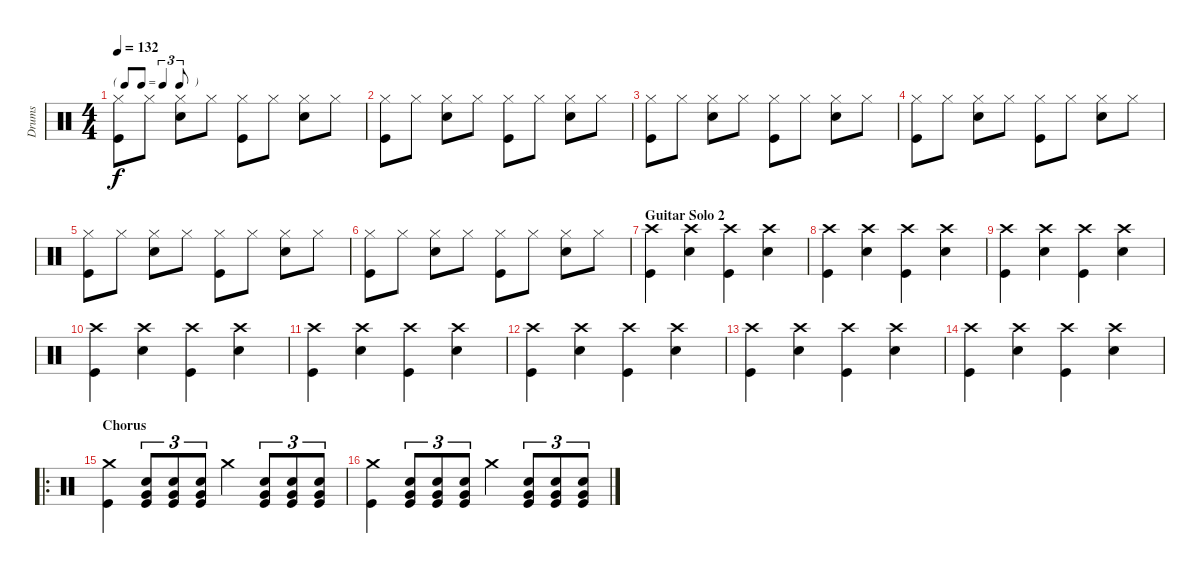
\track ("Drums" "Drums") {instrument percussion}
\staff {score}
\articulation defaults
\ts (4 4)
\tf triplet8th
\tempo 132
\clef neutral
\ks c
("Hi-Hat (closed)" "Kick (hit)").8{dy f} "Hi-Hat (closed)".8 ("Hi-Hat (closed)" "Snare (hit) 2").8 "Hi-Hat (closed)".8 ("Hi-Hat (closed)" "Kick (hit)").8 "Hi-Hat (closed)".8 ("Hi-Hat (closed)" "Snare (hit) 2").8 "Hi-Hat (closed)".8 |
("Hi-Hat (closed)" "Kick (hit)").8 "Hi-Hat (closed)".8 ("Hi-Hat (closed)" "Snare (hit) 2").8 "Hi-Hat (closed)".8 ("Hi-Hat (closed)" "Kick (hit)").8 "Hi-Hat (closed)".8 ("Hi-Hat (closed)" "Snare (hit) 2").8 "Hi-Hat (closed)".8 |
("Hi-Hat (closed)" "Kick (hit)").8 "Hi-Hat (closed)".8 ("Hi-Hat (closed)" "Snare (hit) 2").8 "Hi-Hat (closed)".8 ("Hi-Hat (closed)" "Kick (hit)").8 "Hi-Hat (closed)".8 ("Hi-Hat (closed)" "Snare (hit) 2").8 "Hi-Hat (closed)".8 |
("Hi-Hat (closed)" "Kick (hit)").8 "Hi-Hat (closed)".8 ("Hi-Hat (closed)" "Snare (hit) 2").8 "Hi-Hat (closed)".8 ("Hi-Hat (closed)" "Kick (hit)").8 "Hi-Hat (closed)".8 ("Hi-Hat (closed)" "Snare (hit) 2").8 "Hi-Hat (closed)".8 |
("Hi-Hat (closed)" "Kick (hit)").8 "Hi-Hat (closed)".8 ("Hi-Hat (closed)" "Snare (hit) 2").8 "Hi-Hat (closed)".8 ("Hi-Hat (closed)" "Kick (hit)").8 "Hi-Hat (closed)".8 ("Hi-Hat (closed)" "Snare (hit) 2").8 "Hi-Hat (closed)".8 |
("Hi-Hat (closed)" "Kick (hit)").8 "Hi-Hat (closed)".8 ("Hi-Hat (closed)" "Snare (hit) 2").8 "Hi-Hat (closed)".8 ("Hi-Hat (closed)" "Kick (hit)").8 "Hi-Hat (closed)".8 ("Hi-Hat (closed)" "Snare (hit) 2").8 "Hi-Hat (closed)".8 |
\section ("" "Guitar Solo 2")
("Crash high (hit)" "Kick (hit)").4 ("Crash high (hit)" "Snare (hit) 2").4 ("Crash high (hit)" "Kick (hit)").4 ("Crash high (hit)" "Snare (hit) 2").4 |
("Crash high (hit)" "Kick (hit)").4 ("Crash high (hit)" "Snare (hit) 2").4 ("Crash high (hit)" "Kick (hit)").4 ("Crash high (hit)" "Snare (hit) 2").4 |
("Crash high (hit)" "Kick (hit)").4 ("Crash high (hit)" "Snare (hit) 2").4 ("Crash high (hit)" "Kick (hit)").4 ("Crash high (hit)" "Snare (hit) 2").4 |
("Crash high (hit)" "Kick (hit)").4 ("Crash high (hit)" "Snare (hit) 2").4 ("Crash high (hit)" "Kick (hit)").4 ("Crash high (hit)" "Snare (hit) 2").4 |
("Crash high (hit)" "Kick (hit)").4 ("Crash high (hit)" "Snare (hit) 2").4 ("Crash high (hit)" "Kick (hit)").4 ("Crash high (hit)" "Snare (hit) 2").4 |
("Crash high (hit)" "Kick (hit)").4 ("Crash high (hit)" "Snare (hit) 2").4 ("Crash high (hit)" "Kick (hit)").4 ("Crash high (hit)" "Snare (hit) 2").4 |
("Crash high (hit)" "Kick (hit)").4 ("Crash high (hit)" "Snare (hit) 2").4 ("Crash high (hit)" "Kick (hit)").4 ("Crash high (hit)" "Snare (hit) 2").4 |
("Crash high (hit)" "Kick (hit)").4 ("Crash high (hit)" "Snare (hit) 2").4 ("Crash high (hit)" "Kick (hit)").4 ("Crash high (hit)" "Snare (hit) 2").4 |
\ro
\section ("" "Chorus")
("Crash medium (hit)" "Kick (hit)").4 ("Very Low Tom (hit)" "Snare (hit) 2" "Kick (hit)").8{tu (3 2)} ("Very Low Tom (hit)" "Snare (hit) 2" "Kick (hit)").8{tu (3 2)} ("Very Low Tom (hit)" "Snare (hit) 2" "Kick (hit)").8{tu (3 2)} "Crash medium (hit)".4 ("Very Low Tom (hit)" "Snare (hit) 2" "Kick (hit)").8{tu (3 2)} ("Very Low Tom (hit)" "Snare (hit) 2" "Kick (hit)").8{tu (3 2)} ("Very Low Tom (hit)" "Snare (hit) 2" "Kick (hit)").8{tu (3 2)} |
("Crash medium (hit)" "Kick (hit)").4 ("Very Low Tom (hit)" "Snare (hit) 2" "Kick (hit)").8{tu (3 2)} ("Very Low Tom (hit)" "Snare (hit) 2" "Kick (hit)").8{tu (3 2)} ("Very Low Tom (hit)" "Snare (hit) 2" "Kick (hit)").8{tu (3 2)} "Crash medium (hit)".4 ("Very Low Tom (hit)" "Snare (hit) 2" "Kick (hit)").8{tu (3 2)} ("Very Low Tom (hit)" "Snare (hit) 2" "Kick (hit)").8{tu (3 2)} ("Very Low Tom (hit)" "Snare (hit) 2" "Kick (hit)").8{tu (3 2)}
